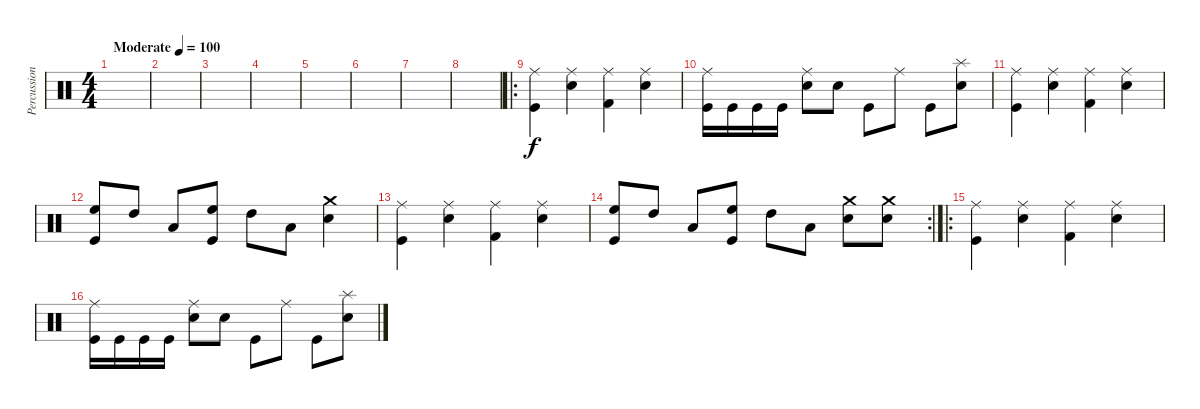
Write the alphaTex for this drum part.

\track ("Percussions" "Percussion") {mute instrument percussion}
\staff {score}
\articulation defaults
\ts (4 4)
\tempo (100 "Moderate")
\clef neutral
\ks c
|
|
|
|
|
|
|
|
\ro
("Kick (hit)" "Ride (middle)").4 ("Snare (hit) 2" "Ride (middle)").4 ("Kick (hit) 2" "Ride (middle)").4 ("Snare (hit) 2" "Ride (middle)").4 |
("Kick (hit)" "Ride (middle)").16 "Kick (hit)".16 "Kick (hit)".16 "Kick (hit)".16 ("Snare (hit) 2" "Ride (middle)").8 "Snare (hit) 2".8 "Kick (hit)".8 "Ride (middle)".8 "Kick (hit)".8 ("Snare (hit) 2" "Splash (hit)").8 |
("Kick (hit)" "Ride (middle)").4 ("Snare (hit) 2" "Ride (middle)").4 ("Kick (hit) 2" "Ride (middle)").4 ("Snare (hit) 2" "Ride (middle)").4 |
("Kick (hit)" "High Floor Tom (hit)").8 "High Tom (hit)".8 "Low Tom (hit)".8 ("Kick (hit)" "High Floor Tom (hit)").8 "High Tom (hit)".8 "Low Tom (hit)".8 ("Snare (hit) 2" "Crash medium (hit)").4 |
("Kick (hit)" "Ride (middle)").4 ("Snare (hit) 2" "Ride (middle)").4 ("Kick (hit) 2" "Ride (middle)").4 ("Snare (hit) 2" "Ride (middle)").4 |
\rc 2
("Kick (hit)" "High Floor Tom (hit)").8 "High Tom (hit)".8 "Low Tom (hit)".8 ("Kick (hit)" "High Floor Tom (hit)").8 "High Tom (hit)".8 "Low Tom (hit)".8 ("Snare (hit) 2" "Crash medium (hit)").8 ("Snare (hit) 2" "Crash medium (hit)").8 |
\ro
("Kick (hit)" "Ride (middle)").4 ("Snare (hit) 2" "Ride (middle)").4 ("Kick (hit) 2" "Ride (middle)").4 ("Snare (hit) 2" "Ride (middle)").4 |
("Kick (hit)" "Ride (middle)").16 "Kick (hit)".16 "Kick (hit)".16 "Kick (hit)".16 ("Snare (hit) 2" "Ride (middle)").8 "Snare (hit) 2".8 "Kick (hit)".8 "Ride (middle)".8 "Kick (hit)".8 ("Snare (hit) 2" "Splash (hit)").8
